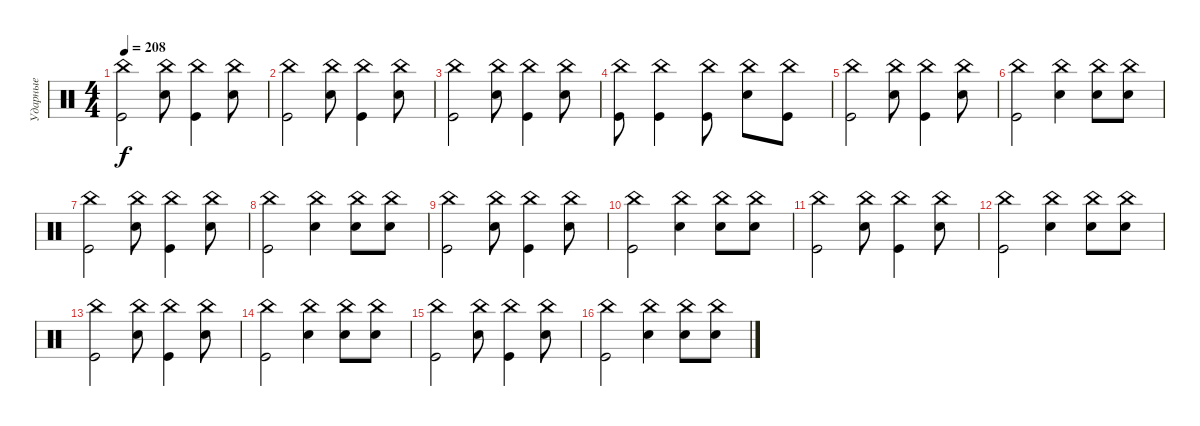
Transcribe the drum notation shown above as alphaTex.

\track ("Ударные" "Ударные") {instrument percussion}
\staff {score}
\articulation defaults
\ts (4 4)
\tempo 208
\clef neutral
\ks c
("Kick (hit)" "China (hit)").2{dy f} ("Snare (hit) 2" "China (hit)").8 ("Kick (hit)" "China (hit)").4 ("Snare (hit) 2" "China (hit)").8 |
("Kick (hit)" "China (hit)").2 ("Snare (hit) 2" "China (hit)").8 ("Kick (hit)" "China (hit)").4 ("Snare (hit) 2" "China (hit)").8 |
("Kick (hit)" "China (hit)").2 ("Snare (hit) 2" "China (hit)").8 ("Kick (hit)" "China (hit)").4 ("Snare (hit) 2" "China (hit)").8 |
("Kick (hit)" "China (hit)").8 ("Kick (hit)" "China (hit)").4 ("Kick (hit)" "China (hit)").8 ("Snare (hit) 2" "China (hit)").8 ("Kick (hit)" "China (hit)").8 |
("Kick (hit)" "China (hit)").2 ("Snare (hit) 2" "China (hit)").8 ("Kick (hit)" "China (hit)").4 ("Snare (hit) 2" "China (hit)").8 |
("Kick (hit)" "China (hit)").2 ("Snare (hit) 2" "China (hit)").4 ("Snare (hit) 2" "China (hit)").8 ("Snare (hit) 2" "China (hit)").8 |
("Kick (hit)" "China (hit)").2 ("Snare (hit) 2" "China (hit)").8 ("Kick (hit)" "China (hit)").4 ("Snare (hit) 2" "China (hit)").8 |
("Kick (hit)" "China (hit)").2 ("Snare (hit) 2" "China (hit)").4 ("Snare (hit) 2" "China (hit)").8 ("Snare (hit) 2" "China (hit)").8 |
("Kick (hit)" "China (hit)").2 ("Snare (hit) 2" "China (hit)").8 ("Kick (hit)" "China (hit)").4 ("Snare (hit) 2" "China (hit)").8 |
("Kick (hit)" "China (hit)").2 ("Snare (hit) 2" "China (hit)").4 ("Snare (hit) 2" "China (hit)").8 ("Snare (hit) 2" "China (hit)").8 |
("Kick (hit)" "China (hit)").2 ("Snare (hit) 2" "China (hit)").8 ("Kick (hit)" "China (hit)").4 ("Snare (hit) 2" "China (hit)").8 |
("Kick (hit)" "China (hit)").2 ("Snare (hit) 2" "China (hit)").4 ("Snare (hit) 2" "China (hit)").8 ("Snare (hit) 2" "China (hit)").8 |
("Kick (hit)" "China (hit)").2 ("Snare (hit) 2" "China (hit)").8 ("Kick (hit)" "China (hit)").4 ("Snare (hit) 2" "China (hit)").8 |
("Kick (hit)" "China (hit)").2 ("Snare (hit) 2" "China (hit)").4 ("Snare (hit) 2" "China (hit)").8 ("Snare (hit) 2" "China (hit)").8 |
("Kick (hit)" "China (hit)").2 ("Snare (hit) 2" "China (hit)").8 ("Kick (hit)" "China (hit)").4 ("Snare (hit) 2" "China (hit)").8 |
("Kick (hit)" "China (hit)").2 ("Snare (hit) 2" "China (hit)").4 ("Snare (hit) 2" "China (hit)").8 ("Snare (hit) 2" "China (hit)").8
